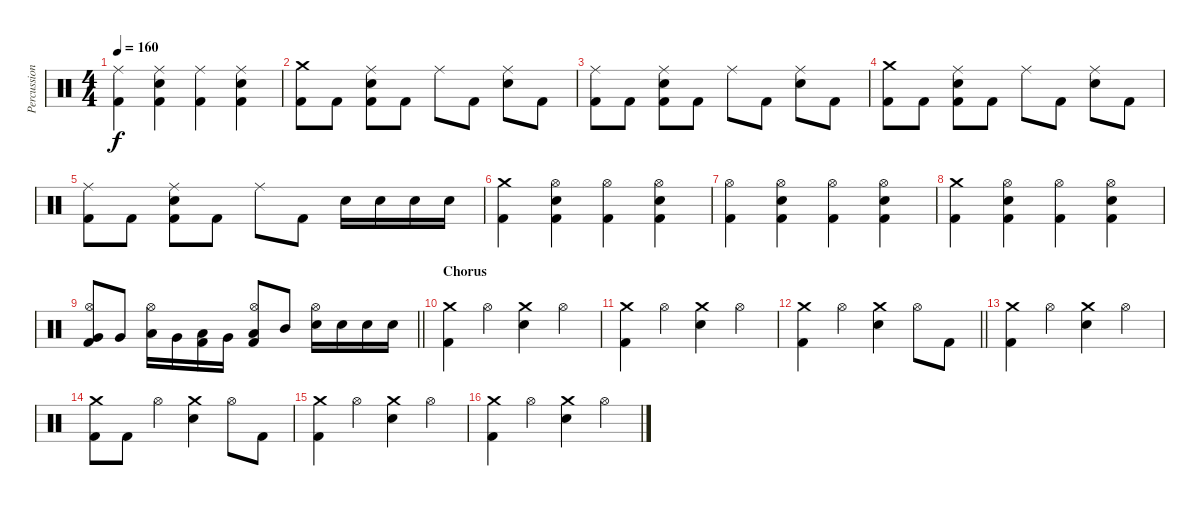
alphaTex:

\track ("Percussioni" "Percussion") {instrument percussion}
\staff {score}
\articulation defaults
\ts (4 4)
\tempo 160
\clef neutral
\ks c
("Ride (middle)" "Kick (hit) 2").4{dy f} ("Ride (middle)" "Electric Snare (hit)" "Kick (hit) 2").4 ("Ride (middle)" "Kick (hit) 2").4 ("Ride (middle)" "Electric Snare (hit)" "Kick (hit) 2").4 |
("Crash medium (hit)" "Kick (hit) 2").8 "Kick (hit) 2".8 ("Ride (middle)" "Electric Snare (hit)" "Kick (hit) 2").8 "Kick (hit) 2".8 "Ride (middle)".8 "Kick (hit) 2".8 ("Ride (middle)" "Electric Snare (hit)").8 "Kick (hit) 2".8 |
("Ride (middle)" "Kick (hit) 2").8 "Kick (hit) 2".8 ("Ride (middle)" "Electric Snare (hit)" "Kick (hit) 2").8 "Kick (hit) 2".8 "Ride (middle)".8 "Kick (hit) 2".8 ("Ride (middle)" "Electric Snare (hit)").8 "Kick (hit) 2".8 |
("Crash medium (hit)" "Kick (hit) 2").8 "Kick (hit) 2".8 ("Ride (middle)" "Electric Snare (hit)" "Kick (hit) 2").8 "Kick (hit) 2".8 "Ride (middle)".8 "Kick (hit) 2".8 ("Ride (middle)" "Electric Snare (hit)").8 "Kick (hit) 2".8 |
("Ride (middle)" "Kick (hit) 2").8 "Kick (hit) 2".8 ("Ride (middle)" "Electric Snare (hit)" "Kick (hit) 2").8 "Kick (hit) 2".8 "Ride (middle)".8 "Kick (hit) 2".8 "Electric Snare (hit)".16 "Electric Snare (hit)".16 "Electric Snare (hit)".16 "Electric Snare (hit)".16 |
("Crash medium (hit)" "Kick (hit) 2").4 ("Hi-Hat (open)" "Electric Snare (hit)" "Kick (hit) 2").4 ("Hi-Hat (open)" "Kick (hit) 2").4 ("Hi-Hat (open)" "Electric Snare (hit)" "Kick (hit) 2").4 |
("Hi-Hat (open)" "Kick (hit) 2").4 ("Hi-Hat (open)" "Electric Snare (hit)" "Kick (hit) 2").4 ("Hi-Hat (open)" "Kick (hit) 2").4 ("Hi-Hat (open)" "Electric Snare (hit)" "Kick (hit) 2").4 |
("Crash medium (hit)" "Kick (hit) 2").4 ("Hi-Hat (open)" "Electric Snare (hit)" "Kick (hit) 2").4 ("Hi-Hat (open)" "Kick (hit) 2").4 ("Hi-Hat (open)" "Electric Snare (hit)" "Kick (hit) 2").4 |
\barLineRight lightlight
("Hi-Hat (open)" "Very Low Tom (hit)" "Kick (hit) 2").8 "Very Low Tom (hit)".8 ("Hi-Hat (open)" "Low Tom (hit)").16 "Very Low Tom (hit)".16 ("Low Tom (hit)" "Kick (hit) 2").16 "Very Low Tom (hit)".16 ("Hi-Hat (open)" "Low Tom (hit)" "Kick (hit) 2").8 "Mid Tom (hit)".8 ("Hi-Hat (open)" "Electric Snare (hit)").16 "Electric Snare (hit)".16 "Electric Snare (hit)".16 "Electric Snare (hit)".16 |
\section ("" "Chorus")
("Crash medium (hit)" "Kick (hit) 2").4 "Hi-Hat (open)".4 ("Crash medium (hit)" "Electric Snare (hit)").4 "Hi-Hat (open)".4 |
("Crash medium (hit)" "Kick (hit) 2").4 "Hi-Hat (open)".4 ("Crash medium (hit)" "Electric Snare (hit)").4 "Hi-Hat (open)".4 |
\barLineRight lightlight
("Crash medium (hit)" "Kick (hit) 2").4 "Hi-Hat (open)".4 ("Crash medium (hit)" "Electric Snare (hit)").4 "Hi-Hat (open)".8 "Kick (hit) 2".8 |
("Crash medium (hit)" "Kick (hit) 2").4 "Hi-Hat (open)".4 ("Crash medium (hit)" "Electric Snare (hit)").4 "Hi-Hat (open)".4 |
("Crash medium (hit)" "Kick (hit) 2").8 "Kick (hit) 2".8 "Hi-Hat (open)".4 ("Crash medium (hit)" "Electric Snare (hit)").4 "Hi-Hat (open)".8 "Kick (hit) 2".8 |
("Crash medium (hit)" "Kick (hit) 2").4 "Hi-Hat (open)".4 ("Crash medium (hit)" "Electric Snare (hit)").4 "Hi-Hat (open)".4 |
("Crash medium (hit)" "Kick (hit) 2").4 "Hi-Hat (open)".4 ("Crash medium (hit)" "Electric Snare (hit)").4 "Hi-Hat (open)".4
